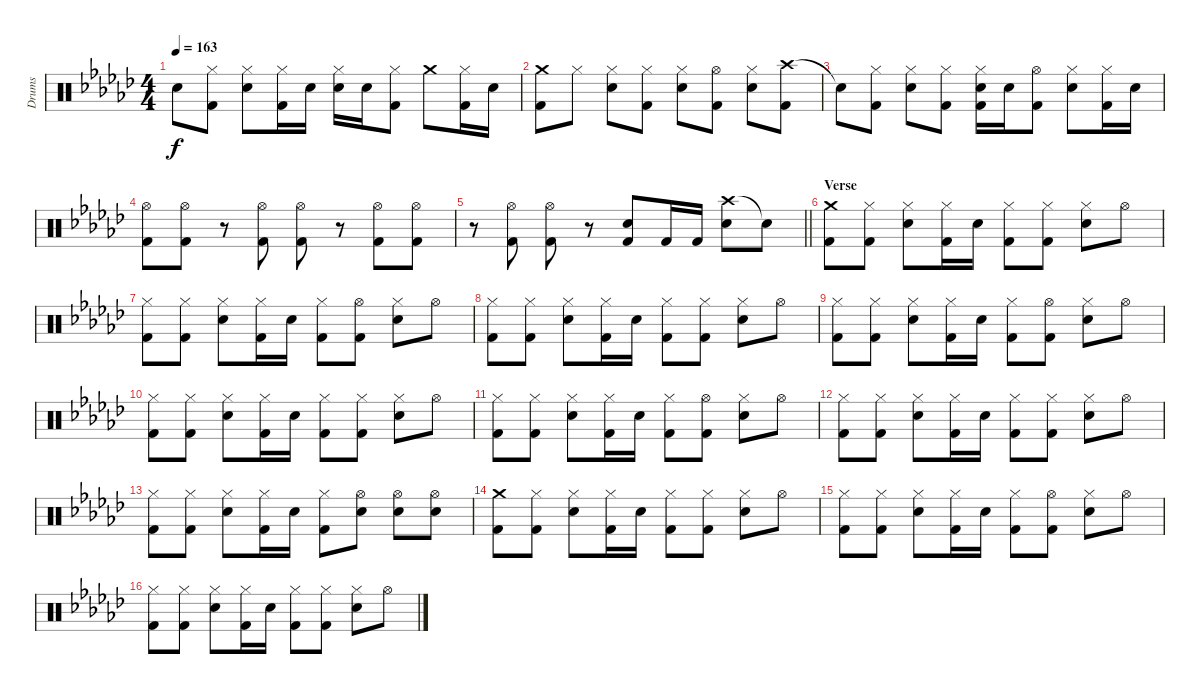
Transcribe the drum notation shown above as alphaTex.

\track ("Drums" "Drums") {mute instrument percussion}
\staff {score}
\articulation defaults
\ts (4 4)
\tempo 163
\clef neutral
\ks gb "Snare (hit)"{t}.8{dy f}
("Hi-Hat (closed)" "Kick (hit) 2").8 ("Hi-Hat (closed)" "Snare (hit) 2").8 ("Hi-Hat (closed)" "Kick (hit) 2").16 "Snare (hit) 2".16 ("Hi-Hat (closed)" "Snare (hit) 2").16 "Snare (hit) 2".16 ("Hi-Hat (closed)" "Kick (hit) 2").8 "Crash medium (hit)".8 ("Hi-Hat (closed)" "Kick (hit) 2").16 "Snare (hit) 2".16 |
("Crash medium (hit)" "Kick (hit) 2").8 "Hi-Hat (closed)".8 ("Hi-Hat (closed)" "Snare (hit) 2").8 ("Hi-Hat (closed)" "Kick (hit) 2").8 ("Hi-Hat (closed)" "Snare (hit) 2").8 ("Hi-Hat (open)" "Kick (hit) 2").8 ("Hi-Hat (closed)" "Snare (hit) 2").8 ("Crash high (hit)" "Kick (hit) 2").8 |
"Snare (hit)"{t}.8 ("Hi-Hat (closed)" "Kick (hit) 2").8 ("Hi-Hat (closed)" "Snare (hit) 2").8 ("Hi-Hat (closed)" "Kick (hit) 2").8 ("Hi-Hat (closed)" "Snare (hit) 2" "Kick (hit) 2").16 "Snare (hit) 2".16 ("Hi-Hat (open)" "Kick (hit) 2").8 ("Hi-Hat (closed)" "Snare (hit) 2").8 ("Hi-Hat (closed)" "Kick (hit) 2").16 "Snare (hit) 2".16 |
("Hi-Hat (open)" "Kick (hit) 2").8 ("Hi-Hat (open)" "Kick (hit) 2").8 r.8 ("Hi-Hat (open)" "Kick (hit) 2").8 ("Hi-Hat (open)" "Kick (hit) 2").8 r.8 ("Hi-Hat (open)" "Kick (hit) 2").8 ("Hi-Hat (open)" "Kick (hit) 2").8 |
\barLineRight lightlight
r.8 ("Hi-Hat (open)" "Kick (hit) 2").8 ("Hi-Hat (open)" "Kick (hit) 2").8 r.8 ("Snare (hit) 2" "Kick (hit) 2").8 "Kick (hit) 2".16 "Kick (hit) 2".16 ("Crash high (hit)" "Snare (hit) 2").8 "Snare (hit)"{t}.8 |
\section ("" "Verse")
("Crash medium (hit)" "Kick (hit) 2").8 ("Hi-Hat (closed)" "Kick (hit) 2").8 ("Hi-Hat (closed)" "Snare (hit) 2").8 ("Hi-Hat (closed)" "Kick (hit) 2").16 "Snare (hit) 2".16 ("Hi-Hat (closed)" "Kick (hit) 2").8 ("Hi-Hat (closed)" "Kick (hit) 2").8 ("Hi-Hat (closed)" "Snare (hit) 2").8 "Hi-Hat (open)".8 |
("Hi-Hat (closed)" "Kick (hit) 2").8 ("Hi-Hat (closed)" "Kick (hit) 2").8 ("Hi-Hat (closed)" "Snare (hit) 2").8 ("Hi-Hat (closed)" "Kick (hit) 2").16 "Snare (hit) 2".16 ("Hi-Hat (closed)" "Kick (hit) 2").8 ("Hi-Hat (open)" "Kick (hit) 2").8 ("Hi-Hat (closed)" "Snare (hit) 2").8 "Hi-Hat (open)".8 |
("Hi-Hat (closed)" "Kick (hit) 2").8 ("Hi-Hat (closed)" "Kick (hit) 2").8 ("Hi-Hat (closed)" "Snare (hit) 2").8 ("Hi-Hat (closed)" "Kick (hit) 2").16 "Snare (hit) 2".16 ("Hi-Hat (closed)" "Kick (hit) 2").8 ("Hi-Hat (closed)" "Kick (hit) 2").8 ("Hi-Hat (closed)" "Snare (hit) 2").8 "Hi-Hat (open)".8 |
("Hi-Hat (closed)" "Kick (hit) 2").8 ("Hi-Hat (closed)" "Kick (hit) 2").8 ("Hi-Hat (closed)" "Snare (hit) 2").8 ("Hi-Hat (closed)" "Kick (hit) 2").16 "Snare (hit) 2".16 ("Hi-Hat (closed)" "Kick (hit) 2").8 ("Hi-Hat (open)" "Kick (hit) 2").8 ("Hi-Hat (closed)" "Snare (hit) 2").8 "Hi-Hat (open)".8 |
("Hi-Hat (closed)" "Kick (hit) 2").8 ("Hi-Hat (closed)" "Kick (hit) 2").8 ("Hi-Hat (closed)" "Snare (hit) 2").8 ("Hi-Hat (closed)" "Kick (hit) 2").16 "Snare (hit) 2".16 ("Hi-Hat (closed)" "Kick (hit) 2").8 ("Hi-Hat (closed)" "Kick (hit) 2").8 ("Hi-Hat (closed)" "Snare (hit) 2").8 "Hi-Hat (open)".8 |
("Hi-Hat (closed)" "Kick (hit) 2").8 ("Hi-Hat (closed)" "Kick (hit) 2").8 ("Hi-Hat (closed)" "Snare (hit) 2").8 ("Hi-Hat (closed)" "Kick (hit) 2").16 "Snare (hit) 2".16 ("Hi-Hat (closed)" "Kick (hit) 2").8 ("Hi-Hat (open)" "Kick (hit) 2").8 ("Hi-Hat (closed)" "Snare (hit) 2").8 "Hi-Hat (open)".8 |
("Hi-Hat (closed)" "Kick (hit) 2").8 ("Hi-Hat (closed)" "Kick (hit) 2").8 ("Hi-Hat (closed)" "Snare (hit) 2").8 ("Hi-Hat (closed)" "Kick (hit) 2").16 "Snare (hit) 2".16 ("Hi-Hat (closed)" "Kick (hit) 2").8 ("Hi-Hat (closed)" "Kick (hit) 2").8 ("Hi-Hat (closed)" "Snare (hit) 2").8 "Hi-Hat (open)".8 |
("Hi-Hat (closed)" "Kick (hit) 2").8 ("Hi-Hat (closed)" "Kick (hit) 2").8 ("Hi-Hat (closed)" "Snare (hit) 2").8 ("Hi-Hat (closed)" "Kick (hit) 2").16 "Snare (hit) 2".16 ("Hi-Hat (closed)" "Kick (hit) 2").8 ("Hi-Hat (open)" "Snare (hit) 2").8 ("Hi-Hat (open)" "Snare (hit) 2").8 ("Hi-Hat (open)" "Snare (hit) 2").8 |
("Crash medium (hit)" "Kick (hit) 2").8 ("Hi-Hat (closed)" "Kick (hit) 2").8 ("Hi-Hat (closed)" "Snare (hit) 2").8 ("Hi-Hat (closed)" "Kick (hit) 2").16 "Snare (hit) 2".16 ("Hi-Hat (closed)" "Kick (hit) 2").8 ("Hi-Hat (closed)" "Kick (hit) 2").8 ("Hi-Hat (closed)" "Snare (hit) 2").8 "Hi-Hat (open)".8 |
("Hi-Hat (closed)" "Kick (hit) 2").8 ("Hi-Hat (closed)" "Kick (hit) 2").8 ("Hi-Hat (closed)" "Snare (hit) 2").8 ("Hi-Hat (closed)" "Kick (hit) 2").16 "Snare (hit) 2".16 ("Hi-Hat (closed)" "Kick (hit) 2").8 ("Hi-Hat (open)" "Kick (hit) 2").8 ("Hi-Hat (closed)" "Snare (hit) 2").8 "Hi-Hat (open)".8 |
("Hi-Hat (closed)" "Kick (hit) 2").8 ("Hi-Hat (closed)" "Kick (hit) 2").8 ("Hi-Hat (closed)" "Snare (hit) 2").8 ("Hi-Hat (closed)" "Kick (hit) 2").16 "Snare (hit) 2".16 ("Hi-Hat (closed)" "Kick (hit) 2").8 ("Hi-Hat (closed)" "Kick (hit) 2").8 ("Hi-Hat (closed)" "Snare (hit) 2").8 "Hi-Hat (open)".8
